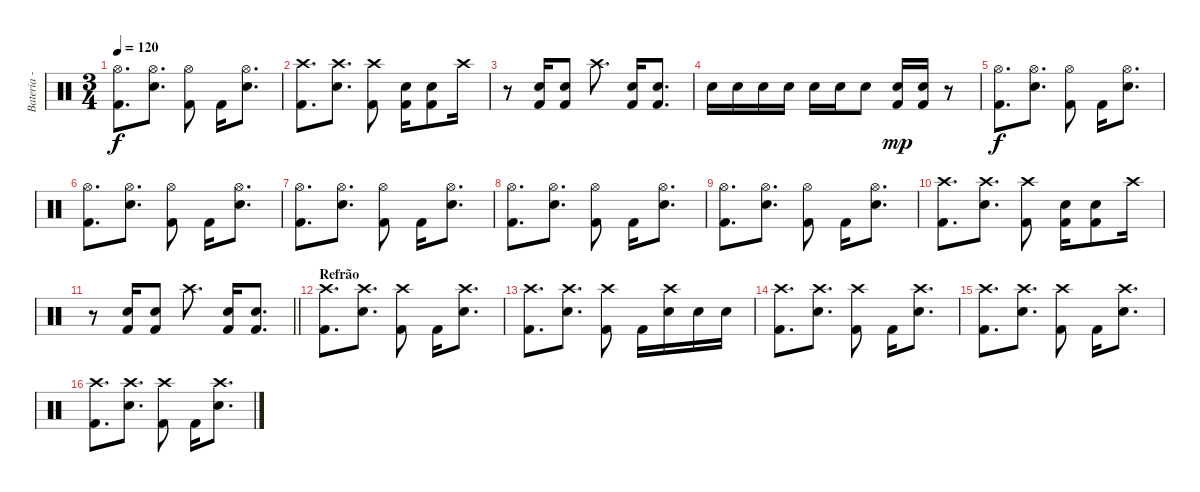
\track ("Bateria - Larzon" "Bateria - ") {instrument percussion}
\staff {score}
\articulation defaults
\ts (3 4)
\tempo 120
\clef neutral
\ks c
("Kick (hit) 2" "Hi-Hat (open)").8{d dy f} ("Snare (hit) 2" "Hi-Hat (open)").8{d} ("Kick (hit) 2" "Hi-Hat (open)").8 "Kick (hit) 2".16 ("Snare (hit) 2" "Hi-Hat (open)").8{d} |
("Kick (hit) 2" "Crash high (hit)").8{d} ("Snare (hit) 2" "Crash high (hit)").8{d} ("Kick (hit) 2" "Crash high (hit)").8 ("Snare (hit) 2" "Kick (hit) 2").16 ("Snare (hit) 2" "Kick (hit) 2").8 "Crash high (hit)".16 |
r.8 ("Snare (hit) 2" "Kick (hit) 2").16 ("Snare (hit) 2" "Kick (hit) 2").8 "Crash high (hit)".8{d} ("Snare (hit) 2" "Kick (hit) 2").16 ("Snare (hit) 2" "Kick (hit) 2").8{d} |
"Snare (hit) 2".16 "Snare (hit) 2".16 "Snare (hit) 2".16 "Snare (hit) 2".16 "Snare (hit) 2".16 "Snare (hit) 2".16 "Snare (hit) 2".8 ("Kick (hit) 2" "Snare (hit) 2").16{dy mp} ("Kick (hit) 2" "Snare (hit) 2").16 r.8 |
("Kick (hit) 2" "Hi-Hat (open)").8{d dy f} ("Snare (hit) 2" "Hi-Hat (open)").8{d} ("Kick (hit) 2" "Hi-Hat (open)").8 "Kick (hit) 2".16 ("Snare (hit) 2" "Hi-Hat (open)").8{d} |
("Kick (hit) 2" "Hi-Hat (open)").8{d} ("Snare (hit) 2" "Hi-Hat (open)").8{d} ("Kick (hit) 2" "Hi-Hat (open)").8 "Kick (hit) 2".16 ("Snare (hit) 2" "Hi-Hat (open)").8{d} |
("Kick (hit) 2" "Hi-Hat (open)").8{d} ("Snare (hit) 2" "Hi-Hat (open)").8{d} ("Kick (hit) 2" "Hi-Hat (open)").8 "Kick (hit) 2".16 ("Snare (hit) 2" "Hi-Hat (open)").8{d} |
("Kick (hit) 2" "Hi-Hat (open)").8{d} ("Snare (hit) 2" "Hi-Hat (open)").8{d} ("Kick (hit) 2" "Hi-Hat (open)").8 "Kick (hit) 2".16 ("Snare (hit) 2" "Hi-Hat (open)").8{d} |
("Kick (hit) 2" "Hi-Hat (open)").8{d} ("Snare (hit) 2" "Hi-Hat (open)").8{d} ("Kick (hit) 2" "Hi-Hat (open)").8 "Kick (hit) 2".16 ("Snare (hit) 2" "Hi-Hat (open)").8{d} |
("Kick (hit) 2" "Crash high (hit)").8{d} ("Snare (hit) 2" "Crash high (hit)").8{d} ("Kick (hit) 2" "Crash high (hit)").8 ("Snare (hit) 2" "Kick (hit) 2").16 ("Snare (hit) 2" "Kick (hit) 2").8 "Crash high (hit)".16 |
\barLineRight lightlight
r.8 ("Snare (hit) 2" "Kick (hit) 2").16 ("Snare (hit) 2" "Kick (hit) 2").8 "Crash high (hit)".8{d} ("Snare (hit) 2" "Kick (hit) 2").16 ("Snare (hit) 2" "Kick (hit) 2").8{d} |
\section ("" "Refrão")
("Kick (hit) 2" "Crash high (hit)").8{d} ("Snare (hit) 2" "Crash high (hit)").8{d} ("Kick (hit) 2" "Crash high (hit)").8 "Kick (hit) 2".16 ("Snare (hit) 2" "Crash high (hit)").8{d} |
("Kick (hit) 2" "Crash high (hit)").8{d} ("Snare (hit) 2" "Crash high (hit)").8{d} ("Kick (hit) 2" "Crash high (hit)").8 "Kick (hit) 2".16 ("Snare (hit) 2" "Crash high (hit)").16 "Snare (hit) 2".16 "Snare (hit) 2".16 |
("Kick (hit) 2" "Crash high (hit)").8{d} ("Snare (hit) 2" "Crash high (hit)").8{d} ("Kick (hit) 2" "Crash high (hit)").8 "Kick (hit) 2".16 ("Snare (hit) 2" "Crash high (hit)").8{d} |
("Kick (hit) 2" "Crash high (hit)").8{d} ("Snare (hit) 2" "Crash high (hit)").8{d} ("Kick (hit) 2" "Crash high (hit)").8 "Kick (hit) 2".16 ("Snare (hit) 2" "Crash high (hit)").8{d} |
("Kick (hit) 2" "Crash high (hit)").8{d} ("Snare (hit) 2" "Crash high (hit)").8{d} ("Kick (hit) 2" "Crash high (hit)").8 "Kick (hit) 2".16 ("Snare (hit) 2" "Crash high (hit)").8{d}
